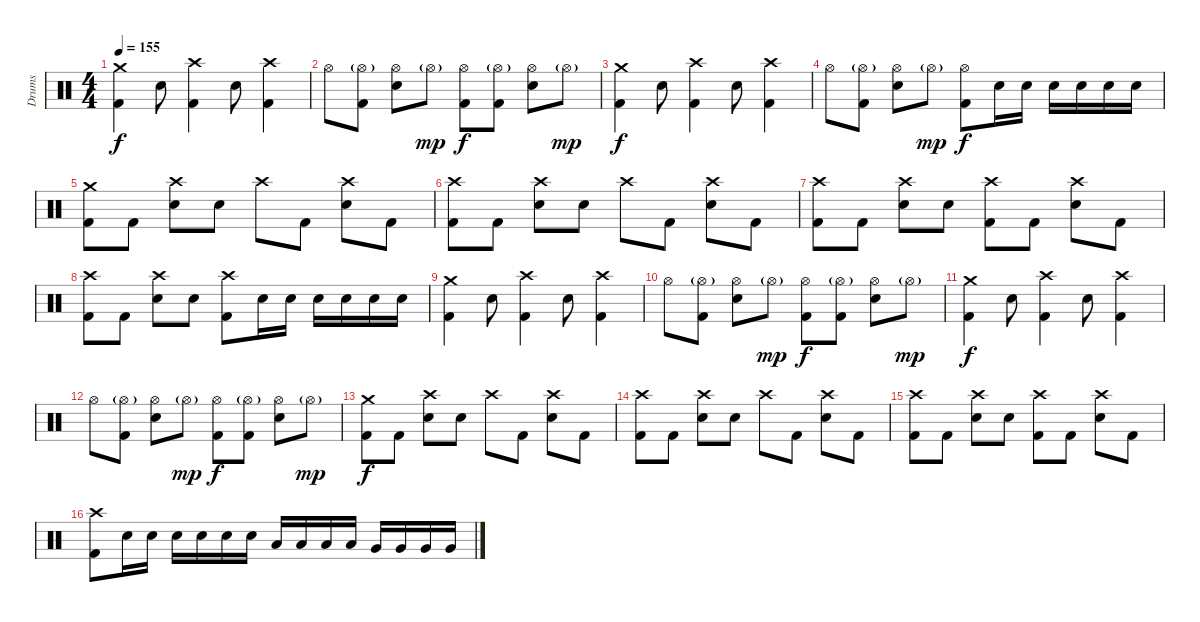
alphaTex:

\track ("Drums" "Drums") {instrument percussion}
\staff {score}
\articulation defaults
\ts (4 4)
\tempo 155
\clef neutral
\ks c
("Crash medium (hit)" "Kick (hit) 2").4{dy f} "Electric Snare (hit)".8 ("Crash high (hit)" "Kick (hit) 2").4 "Electric Snare (hit)".8 ("Crash high (hit)" "Kick (hit) 2").4 |
"Hi-Hat (open)".8 ("Hi-Hat (open)"{g} "Kick (hit) 2").8 ("Hi-Hat (open)" "Electric Snare (hit)").8 "Hi-Hat (open)"{g}.8{dy mp} ("Hi-Hat (open)" "Kick (hit) 2").8{dy f} ("Hi-Hat (open)"{g} "Kick (hit) 2").8 ("Hi-Hat (open)" "Electric Snare (hit)").8 "Hi-Hat (open)"{g}.8{dy mp} |
("Crash medium (hit)" "Kick (hit) 2").4{dy f} "Electric Snare (hit)".8 ("Crash high (hit)" "Kick (hit) 2").4 "Electric Snare (hit)".8 ("Crash high (hit)" "Kick (hit) 2").4 |
"Hi-Hat (open)".8 ("Hi-Hat (open)"{g} "Kick (hit) 2").8 ("Hi-Hat (open)" "Electric Snare (hit)").8 "Hi-Hat (open)"{g}.8{dy mp} ("Hi-Hat (open)" "Kick (hit) 2").8{dy f} "Electric Snare (hit)".16 "Electric Snare (hit)".16 "Electric Snare (hit)".16 "Electric Snare (hit)".16 "Electric Snare (hit)".16 "Electric Snare (hit)".16 |
("Crash medium (hit)" "Kick (hit) 2").8 "Kick (hit) 2".8 ("Crash high (hit)" "Electric Snare (hit)").8 "Electric Snare (hit)".8 "Crash high (hit)".8 "Kick (hit) 2".8 ("Crash high (hit)" "Electric Snare (hit)").8 "Kick (hit) 2".8 |
("Crash high (hit)" "Kick (hit) 2").8 "Kick (hit) 2".8 ("Crash high (hit)" "Electric Snare (hit)").8 "Electric Snare (hit)".8 "Crash high (hit)".8 "Kick (hit) 2".8 ("Crash high (hit)" "Electric Snare (hit)").8 "Kick (hit) 2".8 |
("Crash high (hit)" "Kick (hit) 2").8 "Kick (hit) 2".8 ("Crash high (hit)" "Electric Snare (hit)").8 "Electric Snare (hit)".8 ("Crash high (hit)" "Kick (hit) 2").8 "Kick (hit) 2".8 ("Crash high (hit)" "Electric Snare (hit)").8 "Kick (hit) 2".8 |
("Crash high (hit)" "Kick (hit) 2").8 "Kick (hit) 2".8 ("Crash high (hit)" "Electric Snare (hit)").8 "Electric Snare (hit)".8 ("Crash high (hit)" "Kick (hit) 2").8 "Electric Snare (hit)".16 "Electric Snare (hit)".16 "Electric Snare (hit)".16 "Electric Snare (hit)".16 "Electric Snare (hit)".16 "Electric Snare (hit)".16 |
("Crash medium (hit)" "Kick (hit) 2").4 "Electric Snare (hit)".8 ("Crash high (hit)" "Kick (hit) 2").4 "Electric Snare (hit)".8 ("Crash high (hit)" "Kick (hit) 2").4 |
"Hi-Hat (open)".8 ("Hi-Hat (open)"{g} "Kick (hit) 2").8 ("Hi-Hat (open)" "Electric Snare (hit)").8 "Hi-Hat (open)"{g}.8{dy mp} ("Hi-Hat (open)" "Kick (hit) 2").8{dy f} ("Hi-Hat (open)"{g} "Kick (hit) 2").8 ("Hi-Hat (open)" "Electric Snare (hit)").8 "Hi-Hat (open)"{g}.8{dy mp} |
("Crash medium (hit)" "Kick (hit) 2").4{dy f} "Electric Snare (hit)".8 ("Crash high (hit)" "Kick (hit) 2").4 "Electric Snare (hit)".8 ("Crash high (hit)" "Kick (hit) 2").4 |
"Hi-Hat (open)".8 ("Hi-Hat (open)"{g} "Kick (hit) 2").8 ("Hi-Hat (open)" "Electric Snare (hit)").8 "Hi-Hat (open)"{g}.8{dy mp} ("Hi-Hat (open)" "Kick (hit) 2").8{dy f} ("Hi-Hat (open)"{g} "Kick (hit) 2").8 ("Hi-Hat (open)" "Electric Snare (hit)").8 "Hi-Hat (open)"{g}.8{dy mp} |
("Crash medium (hit)" "Kick (hit) 2").8{dy f} "Kick (hit) 2".8 ("Crash high (hit)" "Electric Snare (hit)").8 "Electric Snare (hit)".8 "Crash high (hit)".8 "Kick (hit) 2".8 ("Crash high (hit)" "Electric Snare (hit)").8 "Kick (hit) 2".8 |
("Crash high (hit)" "Kick (hit) 2").8 "Kick (hit) 2".8 ("Crash high (hit)" "Electric Snare (hit)").8 "Electric Snare (hit)".8 "Crash high (hit)".8 "Kick (hit) 2".8 ("Crash high (hit)" "Electric Snare (hit)").8 "Kick (hit) 2".8 |
("Crash high (hit)" "Kick (hit) 2").8 "Kick (hit) 2".8 ("Crash high (hit)" "Electric Snare (hit)").8 "Electric Snare (hit)".8 ("Crash high (hit)" "Kick (hit) 2").8 "Kick (hit) 2".8 ("Crash high (hit)" "Electric Snare (hit)").8 "Kick (hit) 2".8 |
("Crash high (hit)" "Kick (hit) 2").8 "Electric Snare (hit)".16 "Electric Snare (hit)".16 "Electric Snare (hit)".16 "Electric Snare (hit)".16 "Electric Snare (hit)".16 "Electric Snare (hit)".16 "Low Tom (hit)".16 "Low Tom (hit)".16 "Low Tom (hit)".16 "Low Tom (hit)".16 "Very Low Tom (hit)".16 "Very Low Tom (hit)".16 "Very Low Tom (hit)".16 "Very Low Tom (hit)".16
